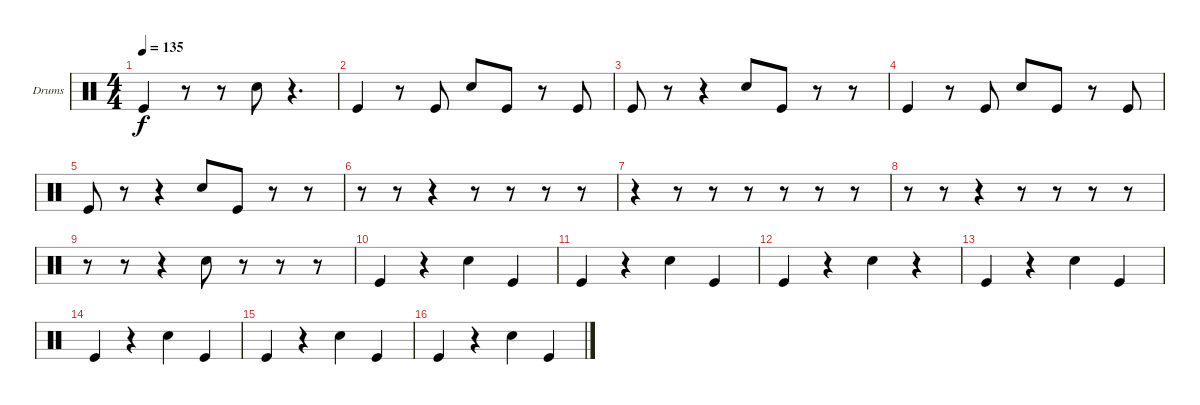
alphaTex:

\bracketExtendMode groupsimilarinstruments
\firstSystemTrackNameOrientation horizontal
\otherSystemsTrackNameOrientation horizontal
\track ("Drumkit" "Drums") {instrument percussion}
\staff {score}
\articulation defaults
\ts (4 4)
\tempo 135
\clef neutral
\ks c "Kick (hit)".4{dy f}
r.8 r.8 "Snare (hit) 2".8 r.4{d} |
"Kick (hit)".4 r.8 "Kick (hit)".8 "Snare (hit) 2".8 "Kick (hit)".8 r.8 "Kick (hit)".8 |
"Kick (hit)".8 r.8 r.4 "Snare (hit) 2".8 "Kick (hit)".8 r.8 r.8 |
"Kick (hit)".4 r.8 "Kick (hit)".8 "Snare (hit) 2".8 "Kick (hit)".8 r.8 "Kick (hit)".8 |
"Kick (hit)".8 r.8 r.4 "Snare (hit) 2".8 "Kick (hit)".8 r.8 r.8 |
r.8 r.8 r.4 r.8 r.8 r.8 r.8 |
r.4 r.8 r.8 r.8 r.8 r.8 r.8 |
r.8 r.8 r.4 r.8 r.8 r.8 r.8 |
r.8 r.8 r.4 "Snare (hit) 2".8 r.8 r.8 r.8 |
"Kick (hit)".4 r.4 "Snare (hit) 2".4 "Kick (hit)".4 |
"Kick (hit)".4 r.4 "Snare (hit) 2".4 "Kick (hit)".4 |
"Kick (hit)".4 r.4 "Snare (hit) 2".4 r.4 |
"Kick (hit)".4 r.4 "Snare (hit) 2".4 "Kick (hit)".4 |
"Kick (hit)".4 r.4 "Snare (hit) 2".4 "Kick (hit)".4 |
"Kick (hit)".4 r.4 "Snare (hit) 2".4 "Kick (hit)".4 |
"Kick (hit)".4 r.4 "Snare (hit) 2".4 "Kick (hit)".4
